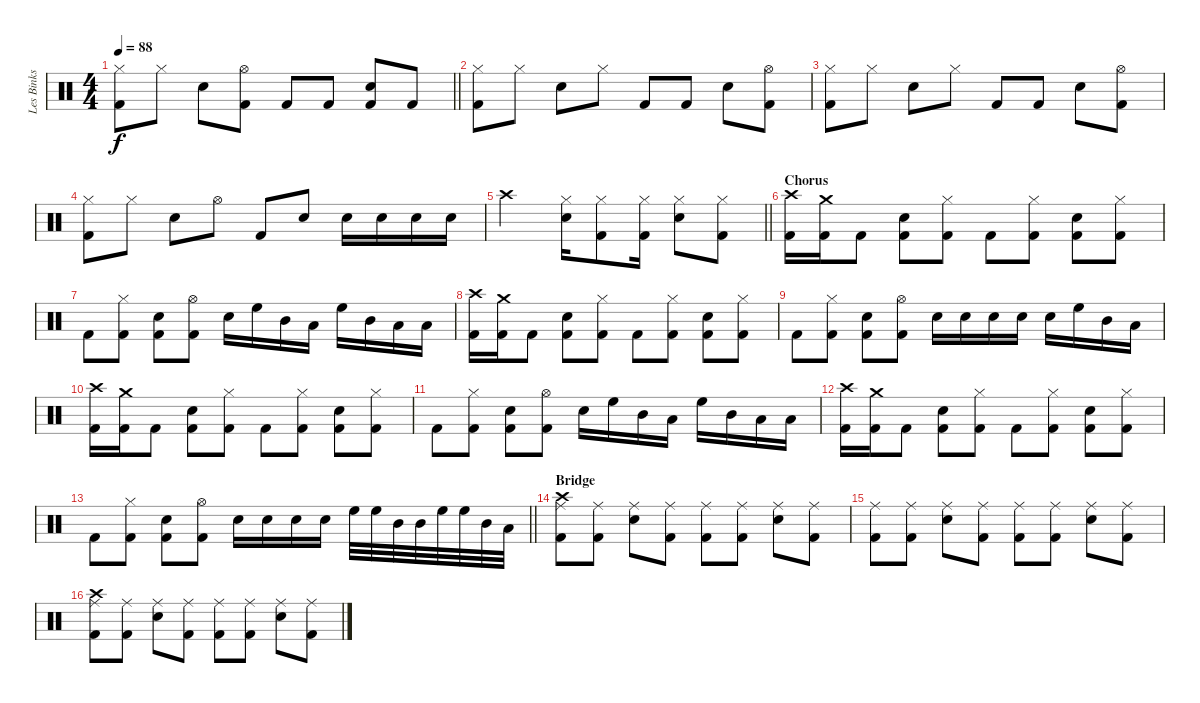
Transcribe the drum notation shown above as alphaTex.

\track ("Les Binks" "Les Binks") {instrument percussion}
\staff {score}
\articulation defaults
\ts (4 4)
\tempo 88
\clef neutral
\barLineRight lightlight
\ks c
("Hi-Hat (closed)" "Kick (hit) 2").8{dy f} "Hi-Hat (closed)".8 "Snare (hit) 2".8 ("Hi-Hat (open)" "Kick (hit) 2").8 "Kick (hit) 2".8 "Kick (hit) 2".8 ("Snare (hit) 2" "Kick (hit) 2").8 "Kick (hit) 2".8 |
("Hi-Hat (closed)" "Kick (hit) 2").8 "Hi-Hat (closed)".8 "Snare (hit) 2".8 "Hi-Hat (closed)".8 "Kick (hit) 2".8 "Kick (hit) 2".8 "Snare (hit) 2".8 ("Hi-Hat (open)" "Kick (hit) 2").8 |
("Hi-Hat (closed)" "Kick (hit) 2").8 "Hi-Hat (closed)".8 "Snare (hit) 2".8 "Hi-Hat (closed)".8 "Kick (hit) 2".8 "Kick (hit) 2".8 "Snare (hit) 2".8 ("Hi-Hat (open)" "Kick (hit) 2").8 |
("Hi-Hat (closed)" "Kick (hit) 2").8 "Hi-Hat (closed)".8 "Snare (hit) 2".8 "Hi-Hat (open)".8 "Kick (hit) 2".8 "Snare (hit) 2".8 "Snare (hit) 2".16 "Snare (hit) 2".16 "Snare (hit) 2".16 "Snare (hit) 2".16 |
\barLineRight lightlight "Crash high (hit)".2
("Hi-Hat (closed)" "Snare (hit) 2").16 ("Hi-Hat (closed)" "Kick (hit) 2").8 ("Hi-Hat (closed)" "Kick (hit) 2").16 ("Hi-Hat (closed)" "Snare (hit) 2").8 ("Hi-Hat (closed)" "Kick (hit) 2").8 |
\section ("" "Chorus")
("Crash high (hit)" "Kick (hit) 2").16 ("Crash medium (hit)" "Kick (hit) 2").16 "Kick (hit) 2".8 ("Snare (hit) 2" "Kick (hit) 2").8 ("Hi-Hat (closed)" "Kick (hit) 2").8 "Kick (hit) 2".8 ("Hi-Hat (closed)" "Kick (hit) 2").8 ("Snare (hit) 2" "Kick (hit) 2").8 ("Hi-Hat (closed)" "Kick (hit) 2").8 |
"Kick (hit) 2".8 ("Hi-Hat (closed)" "Kick (hit) 2").8 ("Snare (hit) 2" "Kick (hit) 2").8 ("Hi-Hat (open)" "Kick (hit) 2").8 "Snare (hit) 2".16 "High Floor Tom (hit)".16 "Mid Tom (hit)".16 "Low Tom (hit)".16 "High Floor Tom (hit)".16 "Mid Tom (hit)".16 "Low Tom (hit)".16 "Low Floor Tom (hit)".16 |
("Crash high (hit)" "Kick (hit) 2").16 ("Crash medium (hit)" "Kick (hit) 2").16 "Kick (hit) 2".8 ("Snare (hit) 2" "Kick (hit) 2").8 ("Hi-Hat (closed)" "Kick (hit) 2").8 "Kick (hit) 2".8 ("Hi-Hat (closed)" "Kick (hit) 2").8 ("Snare (hit) 2" "Kick (hit) 2").8 ("Hi-Hat (closed)" "Kick (hit) 2").8 |
"Kick (hit) 2".8 ("Hi-Hat (closed)" "Kick (hit) 2").8 ("Snare (hit) 2" "Kick (hit) 2").8 ("Hi-Hat (open)" "Kick (hit) 2").8 "Snare (hit) 2".16 "Snare (hit) 2".16 "Snare (hit) 2".16 "Snare (hit) 2".16 "Snare (hit) 2".16 "High Floor Tom (hit)".16 "Mid Tom (hit)".16 "Low Tom (hit)".16 |
("Crash high (hit)" "Kick (hit) 2").16 ("Crash medium (hit)" "Kick (hit) 2").16 "Kick (hit) 2".8 ("Snare (hit) 2" "Kick (hit) 2").8 ("Hi-Hat (closed)" "Kick (hit) 2").8 "Kick (hit) 2".8 ("Hi-Hat (closed)" "Kick (hit) 2").8 ("Snare (hit) 2" "Kick (hit) 2").8 ("Hi-Hat (closed)" "Kick (hit) 2").8 |
"Kick (hit) 2".8 ("Hi-Hat (closed)" "Kick (hit) 2").8 ("Snare (hit) 2" "Kick (hit) 2").8 ("Hi-Hat (open)" "Kick (hit) 2").8 "Snare (hit) 2".16 "High Floor Tom (hit)".16 "Mid Tom (hit)".16 "Low Tom (hit)".16 "High Floor Tom (hit)".16 "Mid Tom (hit)".16 "Low Tom (hit)".16 "Low Floor Tom (hit)".16 |
("Crash high (hit)" "Kick (hit) 2").16 ("Crash medium (hit)" "Kick (hit) 2").16 "Kick (hit) 2".8 ("Snare (hit) 2" "Kick (hit) 2").8 ("Hi-Hat (closed)" "Kick (hit) 2").8 "Kick (hit) 2".8 ("Hi-Hat (closed)" "Kick (hit) 2").8 ("Snare (hit) 2" "Kick (hit) 2").8 ("Hi-Hat (closed)" "Kick (hit) 2").8 |
\barLineRight lightlight "Kick (hit) 2".8
("Hi-Hat (closed)" "Kick (hit) 2").8 ("Snare (hit) 2" "Kick (hit) 2").8 ("Hi-Hat (open)" "Kick (hit) 2").8 "Snare (hit) 2".16 "Snare (hit) 2".16 "Snare (hit) 2".16 "Snare (hit) 2".16 "High Floor Tom (hit)".32 "High Floor Tom (hit)".32 "Mid Tom (hit)".32 "Mid Tom (hit)".32 "High Floor Tom (hit)".32 "High Floor Tom (hit)".32 "Mid Tom (hit)".32 "Low Tom (hit)".32 |
\section ("" "Bridge")
("Crash high (hit)" "Ride (middle)" "Kick (hit) 2").8 ("Ride (middle)" "Kick (hit) 2").8 ("Ride (middle)" "Snare (hit) 2").8 ("Ride (middle)" "Kick (hit) 2").8 ("Ride (middle)" "Kick (hit) 2").8 ("Ride (middle)" "Kick (hit) 2").8 ("Ride (middle)" "Snare (hit) 2").8 ("Ride (middle)" "Kick (hit) 2").8 |
("Ride (middle)" "Kick (hit) 2").8 ("Ride (middle)" "Kick (hit) 2").8 ("Ride (middle)" "Snare (hit) 2").8 ("Ride (middle)" "Kick (hit) 2").8 ("Ride (middle)" "Kick (hit) 2").8 ("Ride (middle)" "Kick (hit) 2").8 ("Ride (middle)" "Snare (hit) 2").8 ("Ride (middle)" "Kick (hit) 2").8 |
("Crash high (hit)" "Ride (middle)" "Kick (hit) 2").8 ("Ride (middle)" "Kick (hit) 2").8 ("Ride (middle)" "Snare (hit) 2").8 ("Ride (middle)" "Kick (hit) 2").8 ("Ride (middle)" "Kick (hit) 2").8 ("Ride (middle)" "Kick (hit) 2").8 ("Ride (middle)" "Snare (hit) 2").8 ("Ride (middle)" "Kick (hit) 2").8
